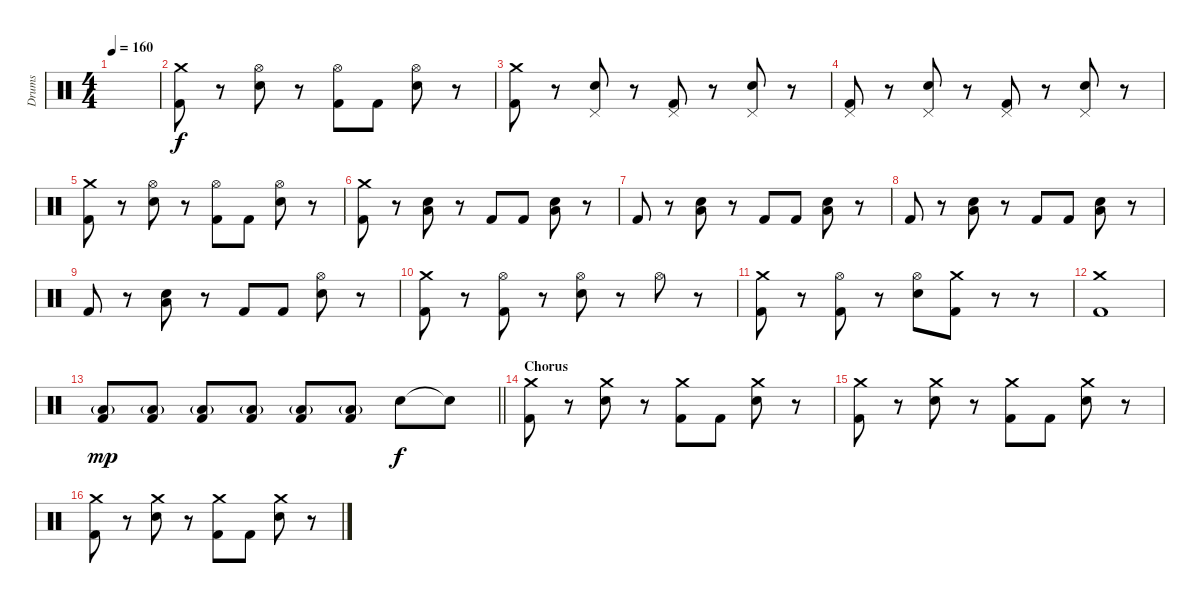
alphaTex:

\track ("Drums" "Drums") {instrument percussion}
\staff {score}
\articulation defaults
\ts (4 4)
\tempo 160
\clef neutral
\ks c
|
("Crash medium (hit)" "Kick (hit) 2").8 r.8 ("Hi-Hat (open)" "Electric Snare (hit)").8 r.8 ("Hi-Hat (open)" "Kick (hit) 2").8 "Kick (hit) 2".8 ("Hi-Hat (open)" "Electric Snare (hit)").8 r.8 |
("Crash medium (hit)" "Kick (hit) 2").8 r.8 ("Pedal Hi-Hat (hit)" "Electric Snare (hit)").8 r.8 ("Pedal Hi-Hat (hit)" "Kick (hit) 2").8 r.8 ("Pedal Hi-Hat (hit)" "Electric Snare (hit)").8 r.8 |
("Pedal Hi-Hat (hit)" "Kick (hit) 2").8 r.8 ("Pedal Hi-Hat (hit)" "Electric Snare (hit)").8 r.8 ("Pedal Hi-Hat (hit)" "Kick (hit) 2").8 r.8 ("Pedal Hi-Hat (hit)" "Electric Snare (hit)").8 r.8 |
("Crash medium (hit)" "Kick (hit) 2").8 r.8 ("Hi-Hat (open)" "Electric Snare (hit)").8 r.8 ("Hi-Hat (open)" "Kick (hit) 2").8 "Kick (hit) 2".8 ("Hi-Hat (open)" "Electric Snare (hit)").8 r.8 |
("Crash medium (hit)" "Kick (hit) 2").8 r.8 ("Low Floor Tom (hit)" "Electric Snare (hit)").8 r.8 "Kick (hit) 2".8 "Kick (hit) 2".8 ("Low Floor Tom (hit)" "Electric Snare (hit)").8 r.8 |
"Kick (hit) 2".8 r.8 ("Low Floor Tom (hit)" "Electric Snare (hit)").8 r.8 "Kick (hit) 2".8 "Kick (hit) 2".8 ("Low Floor Tom (hit)" "Electric Snare (hit)").8 r.8 |
"Kick (hit) 2".8 r.8 ("Low Floor Tom (hit)" "Electric Snare (hit)").8 r.8 "Kick (hit) 2".8 "Kick (hit) 2".8 ("Low Floor Tom (hit)" "Electric Snare (hit)").8 r.8 |
"Kick (hit) 2".8 r.8 ("Low Floor Tom (hit)" "Electric Snare (hit)").8 r.8 "Kick (hit) 2".8 "Kick (hit) 2".8 ("Hi-Hat (open)" "Electric Snare (hit)").8 r.8 |
("Crash medium (hit)" "Kick (hit) 2").8 r.8 ("Hi-Hat (open)" "Kick (hit) 2").8 r.8 ("Hi-Hat (open)" "Electric Snare (hit)").8 r.8 "Hi-Hat (open)".8 r.8 |
("Crash medium (hit)" "Kick (hit) 2").8 r.8 ("Hi-Hat (open)" "Kick (hit) 2").8 r.8 ("Hi-Hat (open)" "Electric Snare (hit)").8 ("Crash medium (hit)" "Kick (hit) 2").8 r.8 r.8 |
("Crash medium (hit)" "Kick (hit) 2").1 |
\barLineRight lightlight
("Kick (hit) 2" "Low Floor Tom (hit)"{g}).8{dy mp} ("Kick (hit) 2" "Low Floor Tom (hit)"{g}).8 ("Kick (hit) 2" "Low Floor Tom (hit)"{g}).8 ("Kick (hit) 2" "Low Floor Tom (hit)"{g}).8 ("Kick (hit) 2" "Low Floor Tom (hit)"{g}).8 ("Kick (hit) 2" "Low Floor Tom (hit)"{g}).8 "Electric Snare (hit)".8{dy f} "Snare (hit)"{t}.8 |
\section ("" "Chorus")
("Crash medium (hit)" "Kick (hit) 2").8 r.8 ("Crash medium (hit)" "Electric Snare (hit)").8 r.8 ("Crash medium (hit)" "Kick (hit) 2").8 "Kick (hit) 2".8 ("Crash medium (hit)" "Electric Snare (hit)").8 r.8 |
("Crash medium (hit)" "Kick (hit) 2").8 r.8 ("Crash medium (hit)" "Electric Snare (hit)").8 r.8 ("Crash medium (hit)" "Kick (hit) 2").8 "Kick (hit) 2".8 ("Crash medium (hit)" "Electric Snare (hit)").8 r.8 |
("Crash medium (hit)" "Kick (hit) 2").8 r.8 ("Crash medium (hit)" "Electric Snare (hit)").8 r.8 ("Crash medium (hit)" "Kick (hit) 2").8 "Kick (hit) 2".8 ("Crash medium (hit)" "Electric Snare (hit)").8 r.8
